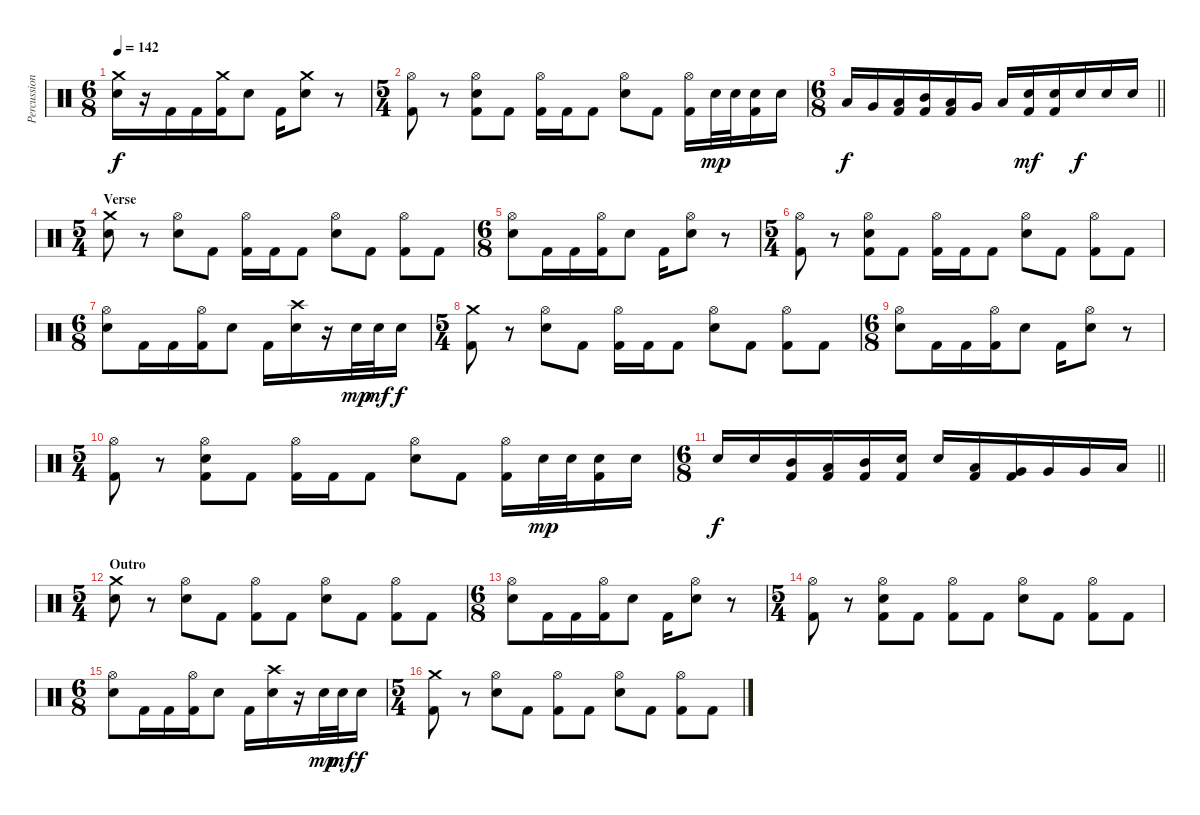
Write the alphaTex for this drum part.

\track ("Percussions" "Percussion") {instrument percussion}
\staff {score}
\articulation defaults
\ts (6 8)
\tempo 142
\clef neutral
\ks c
("Crash medium (hit)" "Electric Snare (hit)").16{dy f} r.16 "Kick (hit) 2".16 "Kick (hit) 2".16 ("Crash medium (hit)" "Kick (hit) 2").16 "Electric Snare (hit)".8 "Kick (hit) 2".16 ("Crash medium (hit)" "Electric Snare (hit)").8 r.8 |
\ts (5 4)
("Hi-Hat (open)" "Kick (hit) 2").8 r.8 ("Hi-Hat (open)" "Electric Snare (hit)" "Kick (hit) 2").8 "Kick (hit) 2".8 ("Hi-Hat (open)" "Kick (hit) 2").16 "Kick (hit) 2".16 "Kick (hit) 2".8 ("Hi-Hat (open)" "Electric Snare (hit)").8 "Kick (hit) 2".8 ("Hi-Hat (open)" "Kick (hit) 2").16 "Electric Snare (hit)".32{dy mp} "Electric Snare (hit)".32 ("Electric Snare (hit)" "Kick (hit) 2").16 "Electric Snare (hit)".16 |
\ts (6 8)
\barLineRight lightlight "Low Tom (hit)".16{dy f} "Very Low Tom (hit)".16
("Low Floor Tom (hit)" "Kick (hit) 2").16 ("Mid Tom (hit)" "Kick (hit) 2").16 ("Low Tom (hit)" "Kick (hit) 2").16 "Very Low Tom (hit)".16 "Low Floor Tom (hit)".16 ("Electric Snare (hit)" "Kick (hit) 2").16{dy mf} ("Electric Snare (hit)" "Kick (hit) 2").16 "Electric Snare (hit)".16{dy f} "Electric Snare (hit)".16 "Electric Snare (hit)".16 |
\ts (5 4)
\section ("" "Verse")
("Crash medium (hit)" "Electric Snare (hit)").8 r.8 ("Hi-Hat (open)" "Electric Snare (hit)").8 "Kick (hit) 2".8 ("Hi-Hat (open)" "Kick (hit) 2").16 "Kick (hit) 2".16 "Kick (hit) 2".8 ("Hi-Hat (open)" "Electric Snare (hit)").8 "Kick (hit) 2".8 ("Hi-Hat (open)" "Kick (hit) 2").8 "Kick (hit) 2".8 |
\ts (6 8)
("Hi-Hat (open)" "Electric Snare (hit)").8 "Kick (hit) 2".16 "Kick (hit) 2".16 ("Hi-Hat (open)" "Kick (hit) 2").16 "Electric Snare (hit)".8 "Kick (hit) 2".16 ("Hi-Hat (open)" "Electric Snare (hit)").8 r.8 |
\ts (5 4)
("Hi-Hat (open)" "Kick (hit) 2").8 r.8 ("Hi-Hat (open)" "Electric Snare (hit)" "Kick (hit) 2").8 "Kick (hit) 2".8 ("Hi-Hat (open)" "Kick (hit) 2").16 "Kick (hit) 2".16 "Kick (hit) 2".8 ("Hi-Hat (open)" "Electric Snare (hit)").8 "Kick (hit) 2".8 ("Hi-Hat (open)" "Kick (hit) 2").8 "Kick (hit) 2".8 |
\ts (6 8)
("Hi-Hat (open)" "Electric Snare (hit)").8 "Kick (hit) 2".16 "Kick (hit) 2".16 ("Hi-Hat (open)" "Kick (hit) 2").16 "Electric Snare (hit)".8 "Kick (hit) 2".16 ("Crash high (hit)" "Electric Snare (hit)").16 r.16 "Electric Snare (hit)".32{dy mp} "Electric Snare (hit)".32{dy mf} "Electric Snare (hit)".16{dy f} |
\ts (5 4)
("Crash medium (hit)" "Kick (hit) 2").8 r.8 ("Hi-Hat (open)" "Electric Snare (hit)").8 "Kick (hit) 2".8 ("Hi-Hat (open)" "Kick (hit) 2").16 "Kick (hit) 2".16 "Kick (hit) 2".8 ("Hi-Hat (open)" "Electric Snare (hit)").8 "Kick (hit) 2".8 ("Hi-Hat (open)" "Kick (hit) 2").8 "Kick (hit) 2".8 |
\ts (6 8)
("Hi-Hat (open)" "Electric Snare (hit)").8 "Kick (hit) 2".16 "Kick (hit) 2".16 ("Hi-Hat (open)" "Kick (hit) 2").16 "Electric Snare (hit)".8 "Kick (hit) 2".16 ("Hi-Hat (open)" "Electric Snare (hit)").8 r.8 |
\ts (5 4)
("Hi-Hat (open)" "Kick (hit) 2").8 r.8 ("Hi-Hat (open)" "Electric Snare (hit)" "Kick (hit) 2").8 "Kick (hit) 2".8 ("Hi-Hat (open)" "Kick (hit) 2").16 "Kick (hit) 2".16 "Kick (hit) 2".8 ("Hi-Hat (open)" "Electric Snare (hit)").8 "Kick (hit) 2".8 ("Hi-Hat (open)" "Kick (hit) 2").16 "Electric Snare (hit)".32{dy mp} "Electric Snare (hit)".32 ("Electric Snare (hit)" "Kick (hit) 2").16 "Electric Snare (hit)".16 |
\ts (6 8)
\barLineRight lightlight "Electric Snare (hit)".16{dy f} "Electric Snare (hit)".16
("Mid Tom (hit)" "Kick (hit) 2").16 ("Low Tom (hit)" "Kick (hit) 2").16 ("Mid Tom (hit)" "Kick (hit) 2").16 ("Electric Snare (hit)" "Kick (hit) 2").16 "Electric Snare (hit)".16 ("Low Tom (hit)" "Kick (hit) 2").16 ("Very Low Tom (hit)" "Kick (hit) 2").16 "Very Low Tom (hit)".16 "Very Low Tom (hit)".16 "Low Floor Tom (hit)".16 |
\ts (5 4)
\section ("" "Outro")
("Crash medium (hit)" "Electric Snare (hit)").8 r.8 ("Hi-Hat (open)" "Electric Snare (hit)").8 "Kick (hit) 2".8 ("Hi-Hat (open)" "Kick (hit) 2").8 "Kick (hit) 2".8 ("Hi-Hat (open)" "Electric Snare (hit)").8 "Kick (hit) 2".8 ("Hi-Hat (open)" "Kick (hit) 2").8 "Kick (hit) 2".8 |
\ts (6 8)
("Hi-Hat (open)" "Electric Snare (hit)").8 "Kick (hit) 2".16 "Kick (hit) 2".16 ("Hi-Hat (open)" "Kick (hit) 2").16 "Electric Snare (hit)".8 "Kick (hit) 2".16 ("Hi-Hat (open)" "Electric Snare (hit)").8 r.8 |
\ts (5 4)
("Hi-Hat (open)" "Kick (hit) 2").8 r.8 ("Hi-Hat (open)" "Electric Snare (hit)" "Kick (hit) 2").8 "Kick (hit) 2".8 ("Hi-Hat (open)" "Kick (hit) 2").8 "Kick (hit) 2".8 ("Hi-Hat (open)" "Electric Snare (hit)").8 "Kick (hit) 2".8 ("Hi-Hat (open)" "Kick (hit) 2").8 "Kick (hit) 2".8 |
\ts (6 8)
("Hi-Hat (open)" "Electric Snare (hit)").8 "Kick (hit) 2".16 "Kick (hit) 2".16 ("Hi-Hat (open)" "Kick (hit) 2").16 "Electric Snare (hit)".8 "Kick (hit) 2".16 ("Crash high (hit)" "Electric Snare (hit)").16 r.16 "Electric Snare (hit)".32{dy mp} "Electric Snare (hit)".32{dy mf} "Electric Snare (hit)".16{dy f} |
\ts (5 4)
("Crash medium (hit)" "Kick (hit) 2").8 r.8 ("Hi-Hat (open)" "Electric Snare (hit)").8 "Kick (hit) 2".8 ("Hi-Hat (open)" "Kick (hit) 2").8 "Kick (hit) 2".8 ("Hi-Hat (open)" "Electric Snare (hit)").8 "Kick (hit) 2".8 ("Hi-Hat (open)" "Kick (hit) 2").8 "Kick (hit) 2".8
